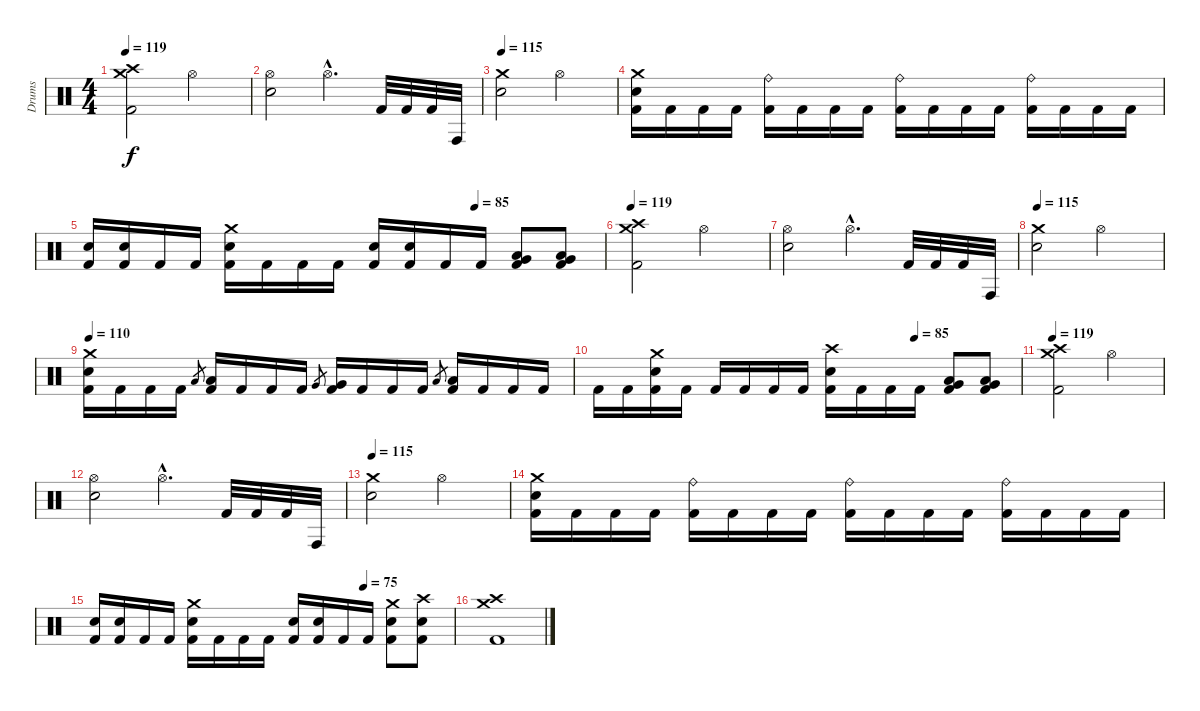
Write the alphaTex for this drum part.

\track ("Drums" "Drums") {instrument percussion}
\staff {score}
\articulation defaults
\ts (4 4)
\tempo 119
\clef neutral
\ks c
("Crash high (hit)" "Crash medium (hit)" "Kick (hit) 2").2{dy f} "Hi-Hat (open)".2 |
("Snare (hit) 2" "Hi-Hat (open)").2 "Hi-Hat (open)"{hac}.4{d} "Kick (hit) 2".32 "Kick (hit) 2".32 "Kick (hit) 2".32 "Conga high (hit)".32 |
\tempo 115
("Crash medium (hit)" "Snare (hit) 2").2 "Hi-Hat (open)".2 |
("Crash medium (hit)" "Snare (hit) 2" "Kick (hit) 2").16 "Kick (hit) 2".16 "Kick (hit) 2".16 "Kick (hit) 2".16 ("Ride (bell)" "Kick (hit) 2").16 "Kick (hit) 2".16 "Kick (hit) 2".16 "Kick (hit) 2".16 ("Ride (bell)" "Kick (hit) 2").16 "Kick (hit) 2".16 "Kick (hit) 2".16 "Kick (hit) 2".16 ("Ride (bell)" "Kick (hit) 2").16 "Kick (hit) 2".16 "Kick (hit) 2".16 "Kick (hit) 2".16 |
\tempo (85 0.75)
("Snare (hit) 2" "Kick (hit) 2").16 ("Snare (hit) 2" "Kick (hit) 2").16 "Kick (hit) 2".16 "Kick (hit) 2".16 ("Crash medium (hit)" "Snare (hit) 2" "Kick (hit) 2").16 "Kick (hit) 2".16 "Kick (hit) 2".16 "Kick (hit) 2".16 ("Snare (hit) 2" "Kick (hit) 2").16 ("Snare (hit) 2" "Kick (hit) 2").16 "Kick (hit) 2".16 "Kick (hit) 2".16 ("Low Tom (hit)" "Very Low Tom (hit)" "Kick (hit) 2").8 ("Low Tom (hit)" "Very Low Tom (hit)" "Kick (hit) 2").8 |
\tempo 119
("Crash high (hit)" "Crash medium (hit)" "Kick (hit) 2").2 "Hi-Hat (open)".2 |
("Snare (hit) 2" "Hi-Hat (open)").2 "Hi-Hat (open)"{hac}.4{d} "Kick (hit) 2".32 "Kick (hit) 2".32 "Kick (hit) 2".32 "Conga high (hit)".32 |
\tempo 115
("Crash medium (hit)" "Snare (hit) 2").2 "Hi-Hat (open)".2 |
\tempo 110
("Crash medium (hit)" "Snare (hit) 2" "Kick (hit) 2").16 "Kick (hit) 2".16 "Kick (hit) 2".16 "Kick (hit) 2".16 "Low Tom (hit)".8{gr} ("Low Tom (hit)" "Kick (hit) 2").16 "Kick (hit) 2".16 "Kick (hit) 2".16 "Kick (hit) 2".16 "Very Low Tom (hit)".8{gr} ("Very Low Tom (hit)" "Kick (hit) 2").16 "Kick (hit) 2".16 "Kick (hit) 2".16 "Kick (hit) 2".16 "Low Floor Tom (hit)".8{gr} ("Low Floor Tom (hit)" "Kick (hit) 2").16 "Kick (hit) 2".16 "Kick (hit) 2".16 "Kick (hit) 2".16 |
\tempo (85 0.75)
"Kick (hit) 2".16 "Kick (hit) 2".16 ("Crash medium (hit)" "Snare (hit) 2" "Kick (hit) 2").16 "Kick (hit) 2".16 "Kick (hit) 2".16 "Kick (hit) 2".16 "Kick (hit) 2".16 "Kick (hit) 2".16 ("Crash high (hit)" "Snare (hit) 2" "Kick (hit) 2").16 "Kick (hit) 2".16 "Kick (hit) 2".16 "Kick (hit) 2".16 ("Low Tom (hit)" "Very Low Tom (hit)" "Kick (hit) 2").8 ("Low Tom (hit)" "Very Low Tom (hit)" "Kick (hit) 2").8 |
\tempo 119
("Crash high (hit)" "Crash medium (hit)" "Kick (hit) 2").2 "Hi-Hat (open)".2 |
("Snare (hit) 2" "Hi-Hat (open)").2 "Hi-Hat (open)"{hac}.4{d} "Kick (hit) 2".32 "Kick (hit) 2".32 "Kick (hit) 2".32 "Conga high (hit)".32 |
\tempo 115
("Crash medium (hit)" "Snare (hit) 2").2 "Hi-Hat (open)".2 |
("Crash medium (hit)" "Snare (hit) 2" "Kick (hit) 2").16 "Kick (hit) 2".16 "Kick (hit) 2".16 "Kick (hit) 2".16 ("Ride (bell)" "Kick (hit) 2").16 "Kick (hit) 2".16 "Kick (hit) 2".16 "Kick (hit) 2".16 ("Ride (bell)" "Kick (hit) 2").16 "Kick (hit) 2".16 "Kick (hit) 2".16 "Kick (hit) 2".16 ("Ride (bell)" "Kick (hit) 2").16 "Kick (hit) 2".16 "Kick (hit) 2".16 "Kick (hit) 2".16 |
\tempo (75 0.75)
("Snare (hit) 2" "Kick (hit) 2").16 ("Snare (hit) 2" "Kick (hit) 2").16 "Kick (hit) 2".16 "Kick (hit) 2".16 ("Crash medium (hit)" "Snare (hit) 2" "Kick (hit) 2").16 "Kick (hit) 2".16 "Kick (hit) 2".16 "Kick (hit) 2".16 ("Snare (hit) 2" "Kick (hit) 2").16 ("Snare (hit) 2" "Kick (hit) 2").16 "Kick (hit) 2".16 "Kick (hit) 2".16 ("Crash medium (hit)" "Snare (hit) 2" "Kick (hit) 2").8 ("Crash high (hit)" "Snare (hit) 2" "Kick (hit) 2").8 |
("Crash medium (hit)" "Crash high (hit)" "Kick (hit) 2").1
